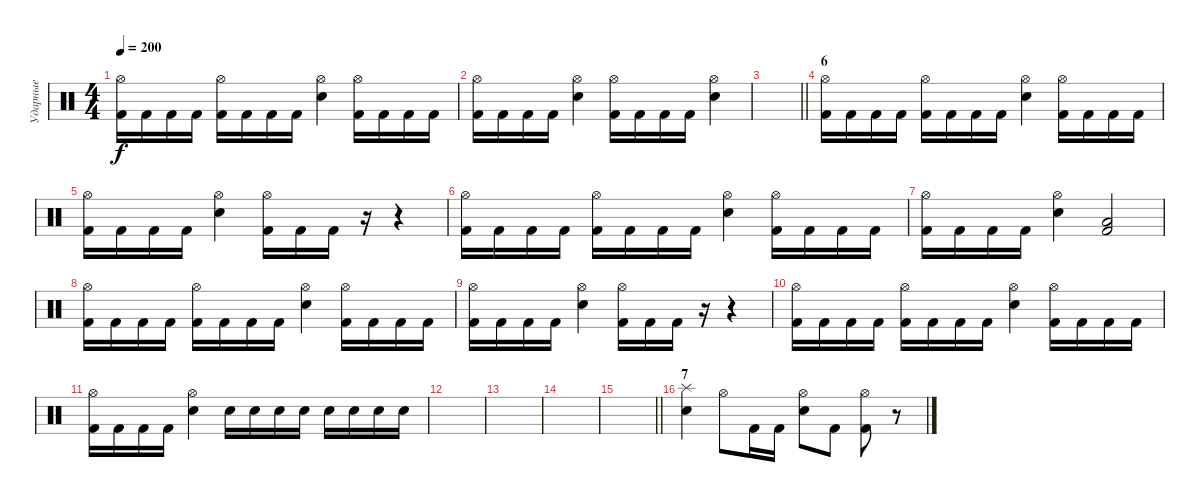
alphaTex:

\track ("Ударные" "Ударные") {instrument percussion}
\staff {score}
\articulation defaults
\ts (4 4)
\tempo 200
\clef neutral
\ks c
("Hi-Hat (open)" "Kick (hit) 2").16{dy f} "Kick (hit) 2".16 "Kick (hit) 2".16 "Kick (hit) 2".16 ("Hi-Hat (open)" "Kick (hit) 2").16 "Kick (hit) 2".16 "Kick (hit) 2".16 "Kick (hit) 2".16 ("Hi-Hat (open)" "Electric Snare (hit)").4 ("Hi-Hat (open)" "Kick (hit) 2").16 "Kick (hit) 2".16 "Kick (hit) 2".16 "Kick (hit) 2".16 |
("Hi-Hat (open)" "Kick (hit) 2").16 "Kick (hit) 2".16 "Kick (hit) 2".16 "Kick (hit) 2".16 ("Hi-Hat (open)" "Electric Snare (hit)").4 ("Hi-Hat (open)" "Kick (hit) 2").16 "Kick (hit) 2".16 "Kick (hit) 2".16 "Kick (hit) 2".16 ("Hi-Hat (open)" "Electric Snare (hit)").4 |
\barLineRight lightlight
|
\section ("" "6")
("Hi-Hat (open)" "Kick (hit) 2").16 "Kick (hit) 2".16 "Kick (hit) 2".16 "Kick (hit) 2".16 ("Hi-Hat (open)" "Kick (hit) 2").16 "Kick (hit) 2".16 "Kick (hit) 2".16 "Kick (hit) 2".16 ("Hi-Hat (open)" "Electric Snare (hit)").4 ("Hi-Hat (open)" "Kick (hit) 2").16 "Kick (hit) 2".16 "Kick (hit) 2".16 "Kick (hit) 2".16 |
("Hi-Hat (open)" "Kick (hit) 2").16 "Kick (hit) 2".16 "Kick (hit) 2".16 "Kick (hit) 2".16 ("Hi-Hat (open)" "Electric Snare (hit)").4 ("Hi-Hat (open)" "Kick (hit) 2").16 "Kick (hit) 2".16 "Kick (hit) 2".16 r.16 r.4 |
("Hi-Hat (open)" "Kick (hit) 2").16 "Kick (hit) 2".16 "Kick (hit) 2".16 "Kick (hit) 2".16 ("Hi-Hat (open)" "Kick (hit) 2").16 "Kick (hit) 2".16 "Kick (hit) 2".16 "Kick (hit) 2".16 ("Hi-Hat (open)" "Electric Snare (hit)").4 ("Hi-Hat (open)" "Kick (hit) 2").16 "Kick (hit) 2".16 "Kick (hit) 2".16 "Kick (hit) 2".16 |
("Hi-Hat (open)" "Kick (hit) 2").16 "Kick (hit) 2".16 "Kick (hit) 2".16 "Kick (hit) 2".16 ("Hi-Hat (open)" "Electric Snare (hit)").4 ("Low Tom (hit)" "Kick (hit) 2").2 |
("Hi-Hat (open)" "Kick (hit) 2").16 "Kick (hit) 2".16 "Kick (hit) 2".16 "Kick (hit) 2".16 ("Hi-Hat (open)" "Kick (hit) 2").16 "Kick (hit) 2".16 "Kick (hit) 2".16 "Kick (hit) 2".16 ("Hi-Hat (open)" "Electric Snare (hit)").4 ("Hi-Hat (open)" "Kick (hit) 2").16 "Kick (hit) 2".16 "Kick (hit) 2".16 "Kick (hit) 2".16 |
("Hi-Hat (open)" "Kick (hit) 2").16 "Kick (hit) 2".16 "Kick (hit) 2".16 "Kick (hit) 2".16 ("Hi-Hat (open)" "Electric Snare (hit)").4 ("Hi-Hat (open)" "Kick (hit) 2").16 "Kick (hit) 2".16 "Kick (hit) 2".16 r.16 r.4 |
("Hi-Hat (open)" "Kick (hit) 2").16 "Kick (hit) 2".16 "Kick (hit) 2".16 "Kick (hit) 2".16 ("Hi-Hat (open)" "Kick (hit) 2").16 "Kick (hit) 2".16 "Kick (hit) 2".16 "Kick (hit) 2".16 ("Hi-Hat (open)" "Electric Snare (hit)").4 ("Hi-Hat (open)" "Kick (hit) 2").16 "Kick (hit) 2".16 "Kick (hit) 2".16 "Kick (hit) 2".16 |
("Hi-Hat (open)" "Kick (hit) 2").16 "Kick (hit) 2".16 "Kick (hit) 2".16 "Kick (hit) 2".16 ("Hi-Hat (open)" "Electric Snare (hit)").4 "Electric Snare (hit)".16 "Electric Snare (hit)".16 "Electric Snare (hit)".16 "Electric Snare (hit)".16 "Electric Snare (hit)".16 "Electric Snare (hit)".16 "Electric Snare (hit)".16 "Electric Snare (hit)".16 |
|
|
|
\barLineRight lightlight
|
\section ("" "7")
("Splash (hit)" "Electric Snare (hit)").4 "Hi-Hat (open)".8 "Kick (hit) 2".16 "Kick (hit) 2".16 ("Hi-Hat (open)" "Electric Snare (hit)").8 "Kick (hit) 2".8 ("Hi-Hat (open)" "Kick (hit) 2").8 r.8
